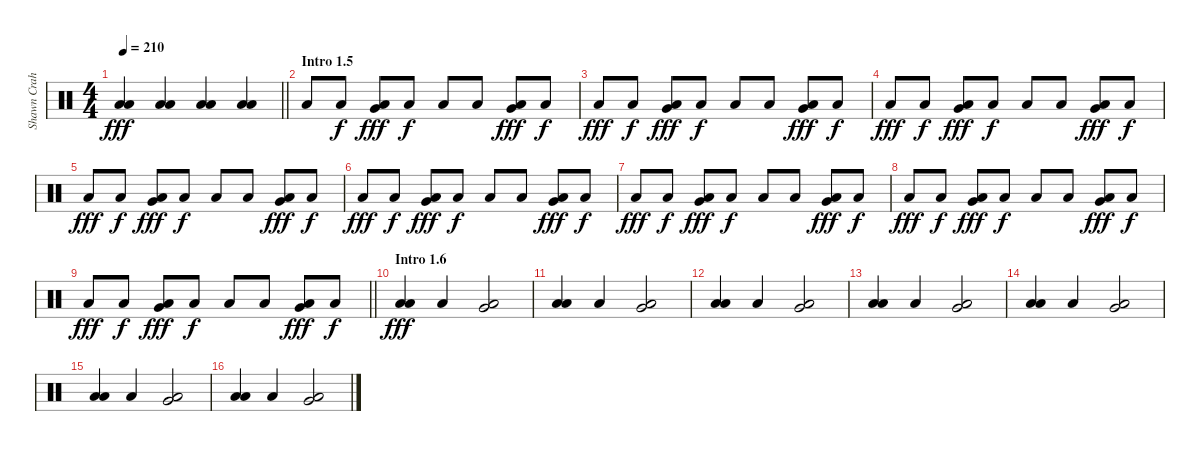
\track ("Shawn Crahan" "Shawn Crah") {instrument percussion}
\staff {score}
\articulation defaults
\ts (4 4)
\tempo 210
\clef neutral
\barLineRight lightlight
\ks c
("Low Floor Tom (hit)" "Low Floor Tom (hit)").4{dy fff} ("Low Floor Tom (hit)" "Low Floor Tom (hit)").4 ("Low Floor Tom (hit)" "Low Floor Tom (hit)").4 ("Low Floor Tom (hit)" "Low Floor Tom (hit)").4 |
\section ("" "Intro 1.5")
"Low Floor Tom (hit)".8 "Low Floor Tom (hit)".8{dy f} ("Very Low Tom (hit)" "Low Floor Tom (hit)").8{dy fff} "Low Floor Tom (hit)".8{dy f} "Low Floor Tom (hit)".8 "Low Floor Tom (hit)".8 ("Very Low Tom (hit)" "Low Floor Tom (hit)").8{dy fff} "Low Floor Tom (hit)".8{dy f} |
"Low Floor Tom (hit)".8{dy fff} "Low Floor Tom (hit)".8{dy f} ("Very Low Tom (hit)" "Low Floor Tom (hit)").8{dy fff} "Low Floor Tom (hit)".8{dy f} "Low Floor Tom (hit)".8 "Low Floor Tom (hit)".8 ("Very Low Tom (hit)" "Low Floor Tom (hit)").8{dy fff} "Low Floor Tom (hit)".8{dy f} |
"Low Floor Tom (hit)".8{dy fff} "Low Floor Tom (hit)".8{dy f} ("Very Low Tom (hit)" "Low Floor Tom (hit)").8{dy fff} "Low Floor Tom (hit)".8{dy f} "Low Floor Tom (hit)".8 "Low Floor Tom (hit)".8 ("Very Low Tom (hit)" "Low Floor Tom (hit)").8{dy fff} "Low Floor Tom (hit)".8{dy f} |
"Low Floor Tom (hit)".8{dy fff} "Low Floor Tom (hit)".8{dy f} ("Very Low Tom (hit)" "Low Floor Tom (hit)").8{dy fff} "Low Floor Tom (hit)".8{dy f} "Low Floor Tom (hit)".8 "Low Floor Tom (hit)".8 ("Very Low Tom (hit)" "Low Floor Tom (hit)").8{dy fff} "Low Floor Tom (hit)".8{dy f} |
"Low Floor Tom (hit)".8{dy fff} "Low Floor Tom (hit)".8{dy f} ("Very Low Tom (hit)" "Low Floor Tom (hit)").8{dy fff} "Low Floor Tom (hit)".8{dy f} "Low Floor Tom (hit)".8 "Low Floor Tom (hit)".8 ("Very Low Tom (hit)" "Low Floor Tom (hit)").8{dy fff} "Low Floor Tom (hit)".8{dy f} |
"Low Floor Tom (hit)".8{dy fff} "Low Floor Tom (hit)".8{dy f} ("Very Low Tom (hit)" "Low Floor Tom (hit)").8{dy fff} "Low Floor Tom (hit)".8{dy f} "Low Floor Tom (hit)".8 "Low Floor Tom (hit)".8 ("Very Low Tom (hit)" "Low Floor Tom (hit)").8{dy fff} "Low Floor Tom (hit)".8{dy f} |
"Low Floor Tom (hit)".8{dy fff} "Low Floor Tom (hit)".8{dy f} ("Very Low Tom (hit)" "Low Floor Tom (hit)").8{dy fff} "Low Floor Tom (hit)".8{dy f} "Low Floor Tom (hit)".8 "Low Floor Tom (hit)".8 ("Very Low Tom (hit)" "Low Floor Tom (hit)").8{dy fff} "Low Floor Tom (hit)".8{dy f} |
\barLineRight lightlight "Low Floor Tom (hit)".8{dy fff} "Low Floor Tom (hit)".8{dy f}
("Very Low Tom (hit)" "Low Floor Tom (hit)").8{dy fff} "Low Floor Tom (hit)".8{dy f} "Low Floor Tom (hit)".8 "Low Floor Tom (hit)".8 ("Very Low Tom (hit)" "Low Floor Tom (hit)").8{dy fff} "Low Floor Tom (hit)".8{dy f} |
\section ("" "Intro 1.6")
("Low Floor Tom (hit)" "Low Floor Tom (hit)").4{dy fff} "Low Floor Tom (hit)".4 ("Very Low Tom (hit)" "Low Floor Tom (hit)").2 |
("Low Floor Tom (hit)" "Low Floor Tom (hit)").4 "Low Floor Tom (hit)".4 ("Very Low Tom (hit)" "Low Floor Tom (hit)").2 |
("Low Floor Tom (hit)" "Low Floor Tom (hit)").4 "Low Floor Tom (hit)".4 ("Very Low Tom (hit)" "Low Floor Tom (hit)").2 |
("Low Floor Tom (hit)" "Low Floor Tom (hit)").4 "Low Floor Tom (hit)".4 ("Very Low Tom (hit)" "Low Floor Tom (hit)").2 |
("Low Floor Tom (hit)" "Low Floor Tom (hit)").4 "Low Floor Tom (hit)".4 ("Very Low Tom (hit)" "Low Floor Tom (hit)").2 |
("Low Floor Tom (hit)" "Low Floor Tom (hit)").4 "Low Floor Tom (hit)".4 ("Very Low Tom (hit)" "Low Floor Tom (hit)").2 |
("Low Floor Tom (hit)" "Low Floor Tom (hit)").4 "Low Floor Tom (hit)".4 ("Very Low Tom (hit)" "Low Floor Tom (hit)").2
